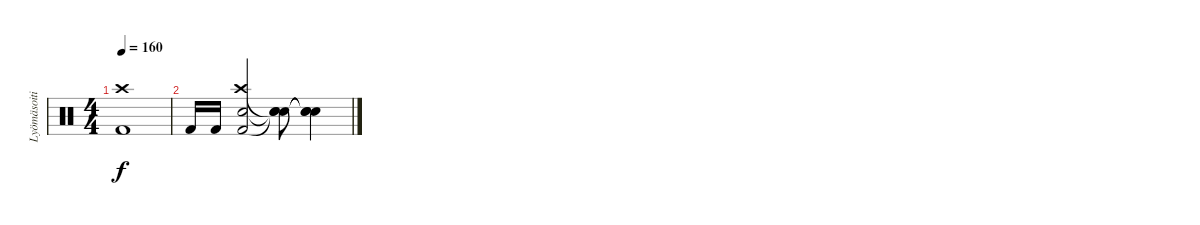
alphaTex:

\track ("Lyömäsoitin" "Lyömäsoiti") {instrument percussion}
\staff {score}
\articulation defaults
\ts (4 4)
\tempo 160
\clef neutral
\ks c
("Kick (hit) 2" "Crash high (hit)").1{dy f} |
"Kick (hit) 2".16 "Kick (hit) 2".16 ("Kick (hit) 2" "Crash high (hit)" "Electric Snare (hit)").2 ("Snare (hit)"{t} "Snare (hit)"{t} "Snare (hit)"{t}).8 ("Snare (hit)"{t} "Snare (hit)"{t} "Snare (hit)"{t}).4
